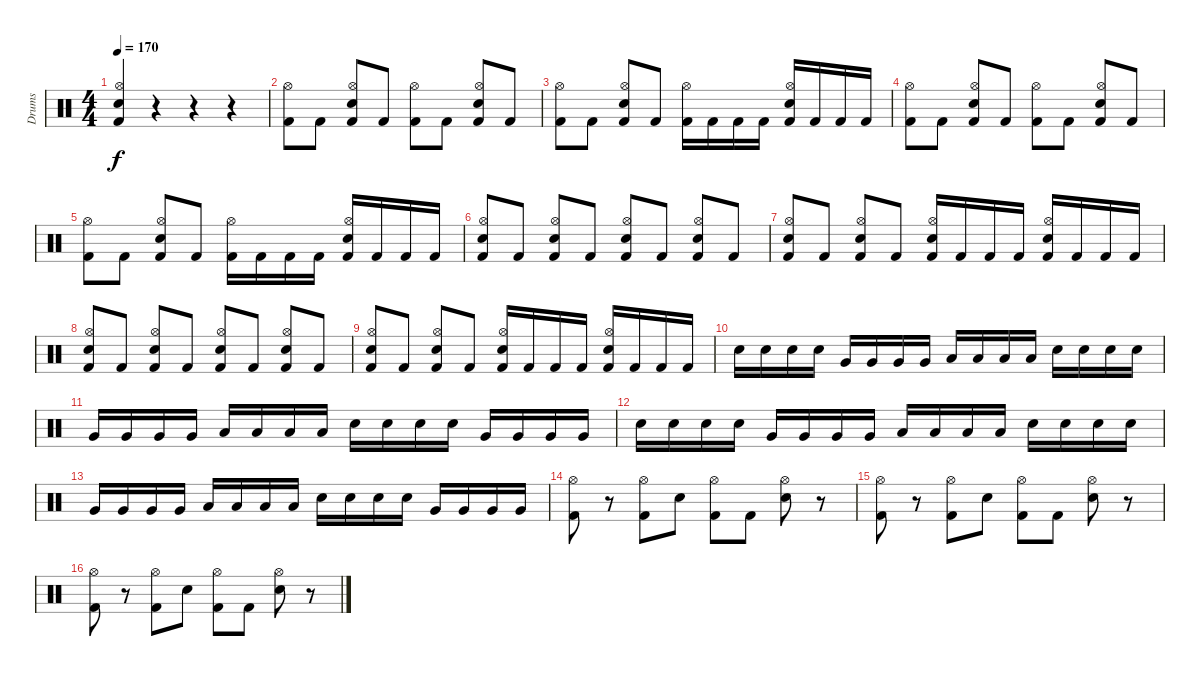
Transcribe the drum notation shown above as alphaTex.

\track ("Drums" "Drums") {instrument percussion}
\staff {score}
\articulation defaults
\ts (4 4)
\tempo 170
\clef neutral
\ks c
("Snare (hit) 2" "Hi-Hat (open)" "Kick (hit) 2").4{dy f} r.4 r.4 r.4 |
("Hi-Hat (open)" "Kick (hit) 2").8 "Kick (hit) 2".8 ("Hi-Hat (open)" "Snare (hit) 2" "Kick (hit) 2").8 "Kick (hit) 2".8 ("Hi-Hat (open)" "Kick (hit) 2").8 "Kick (hit) 2".8 ("Hi-Hat (open)" "Snare (hit) 2" "Kick (hit) 2").8 "Kick (hit) 2".8 |
("Hi-Hat (open)" "Kick (hit) 2").8 "Kick (hit) 2".8 ("Hi-Hat (open)" "Snare (hit) 2" "Kick (hit) 2").8 "Kick (hit) 2".8 ("Hi-Hat (open)" "Kick (hit) 2").16 "Kick (hit) 2".16 "Kick (hit) 2".16 "Kick (hit) 2".16 ("Hi-Hat (open)" "Snare (hit) 2" "Kick (hit) 2").16 "Kick (hit) 2".16 "Kick (hit) 2".16 "Kick (hit) 2".16 |
("Hi-Hat (open)" "Kick (hit) 2").8 "Kick (hit) 2".8 ("Hi-Hat (open)" "Snare (hit) 2" "Kick (hit) 2").8 "Kick (hit) 2".8 ("Hi-Hat (open)" "Kick (hit) 2").8 "Kick (hit) 2".8 ("Hi-Hat (open)" "Snare (hit) 2" "Kick (hit) 2").8 "Kick (hit) 2".8 |
("Hi-Hat (open)" "Kick (hit) 2").8 "Kick (hit) 2".8 ("Hi-Hat (open)" "Snare (hit) 2" "Kick (hit) 2").8 "Kick (hit) 2".8 ("Hi-Hat (open)" "Kick (hit) 2").16 "Kick (hit) 2".16 "Kick (hit) 2".16 "Kick (hit) 2".16 ("Hi-Hat (open)" "Snare (hit) 2" "Kick (hit) 2").16 "Kick (hit) 2".16 "Kick (hit) 2".16 "Kick (hit) 2".16 |
("Hi-Hat (open)" "Snare (hit) 2" "Kick (hit) 2").8 "Kick (hit) 2".8 ("Hi-Hat (open)" "Snare (hit) 2" "Kick (hit) 2").8 "Kick (hit) 2".8 ("Hi-Hat (open)" "Snare (hit) 2" "Kick (hit) 2").8 "Kick (hit) 2".8 ("Hi-Hat (open)" "Snare (hit) 2" "Kick (hit) 2").8 "Kick (hit) 2".8 |
("Hi-Hat (open)" "Snare (hit) 2" "Kick (hit) 2").8 "Kick (hit) 2".8 ("Hi-Hat (open)" "Snare (hit) 2" "Kick (hit) 2").8 "Kick (hit) 2".8 ("Hi-Hat (open)" "Snare (hit) 2" "Kick (hit) 2").16 "Kick (hit) 2".16 "Kick (hit) 2".16 "Kick (hit) 2".16 ("Hi-Hat (open)" "Snare (hit) 2" "Kick (hit) 2").16 "Kick (hit) 2".16 "Kick (hit) 2".16 "Kick (hit) 2".16 |
("Hi-Hat (open)" "Snare (hit) 2" "Kick (hit) 2").8 "Kick (hit) 2".8 ("Hi-Hat (open)" "Snare (hit) 2" "Kick (hit) 2").8 "Kick (hit) 2".8 ("Hi-Hat (open)" "Snare (hit) 2" "Kick (hit) 2").8 "Kick (hit) 2".8 ("Hi-Hat (open)" "Snare (hit) 2" "Kick (hit) 2").8 "Kick (hit) 2".8 |
("Hi-Hat (open)" "Snare (hit) 2" "Kick (hit) 2").8 "Kick (hit) 2".8 ("Hi-Hat (open)" "Snare (hit) 2" "Kick (hit) 2").8 "Kick (hit) 2".8 ("Hi-Hat (open)" "Snare (hit) 2" "Kick (hit) 2").16 "Kick (hit) 2".16 "Kick (hit) 2".16 "Kick (hit) 2".16 ("Hi-Hat (open)" "Snare (hit) 2" "Kick (hit) 2").16 "Kick (hit) 2".16 "Kick (hit) 2".16 "Kick (hit) 2".16 |
"Snare (hit) 2".16 "Snare (hit) 2".16 "Snare (hit) 2".16 "Snare (hit) 2".16 "Very Low Tom (hit)".16 "Very Low Tom (hit)".16 "Very Low Tom (hit)".16 "Very Low Tom (hit)".16 "Low Floor Tom (hit)".16 "Low Floor Tom (hit)".16 "Low Floor Tom (hit)".16 "Low Floor Tom (hit)".16 "Snare (hit) 2".16 "Snare (hit) 2".16 "Snare (hit) 2".16 "Snare (hit) 2".16 |
"Very Low Tom (hit)".16 "Very Low Tom (hit)".16 "Very Low Tom (hit)".16 "Very Low Tom (hit)".16 "Low Floor Tom (hit)".16 "Low Floor Tom (hit)".16 "Low Floor Tom (hit)".16 "Low Floor Tom (hit)".16 "Snare (hit) 2".16 "Snare (hit) 2".16 "Snare (hit) 2".16 "Snare (hit) 2".16 "Very Low Tom (hit)".16 "Very Low Tom (hit)".16 "Very Low Tom (hit)".16 "Very Low Tom (hit)".16 |
"Snare (hit) 2".16 "Snare (hit) 2".16 "Snare (hit) 2".16 "Snare (hit) 2".16 "Very Low Tom (hit)".16 "Very Low Tom (hit)".16 "Very Low Tom (hit)".16 "Very Low Tom (hit)".16 "Low Floor Tom (hit)".16 "Low Floor Tom (hit)".16 "Low Floor Tom (hit)".16 "Low Floor Tom (hit)".16 "Snare (hit) 2".16 "Snare (hit) 2".16 "Snare (hit) 2".16 "Snare (hit) 2".16 |
"Very Low Tom (hit)".16 "Very Low Tom (hit)".16 "Very Low Tom (hit)".16 "Very Low Tom (hit)".16 "Low Floor Tom (hit)".16 "Low Floor Tom (hit)".16 "Low Floor Tom (hit)".16 "Low Floor Tom (hit)".16 "Snare (hit) 2".16 "Snare (hit) 2".16 "Snare (hit) 2".16 "Snare (hit) 2".16 "Very Low Tom (hit)".16 "Very Low Tom (hit)".16 "Very Low Tom (hit)".16 "Very Low Tom (hit)".16 |
("Hi-Hat (open)" "Kick (hit) 2").8 r.8 ("Hi-Hat (open)" "Kick (hit) 2").8 "Snare (hit) 2".8 ("Hi-Hat (open)" "Kick (hit) 2").8 "Kick (hit) 2".8 ("Hi-Hat (open)" "Snare (hit) 2").8 r.8 |
("Hi-Hat (open)" "Kick (hit) 2").8 r.8 ("Hi-Hat (open)" "Kick (hit) 2").8 "Snare (hit) 2".8 ("Hi-Hat (open)" "Kick (hit) 2").8 "Kick (hit) 2".8 ("Hi-Hat (open)" "Snare (hit) 2").8 r.8 |
("Hi-Hat (open)" "Kick (hit) 2").8 r.8 ("Hi-Hat (open)" "Kick (hit) 2").8 "Snare (hit) 2".8 ("Hi-Hat (open)" "Kick (hit) 2").8 "Kick (hit) 2".8 ("Hi-Hat (open)" "Snare (hit) 2").8 r.8
